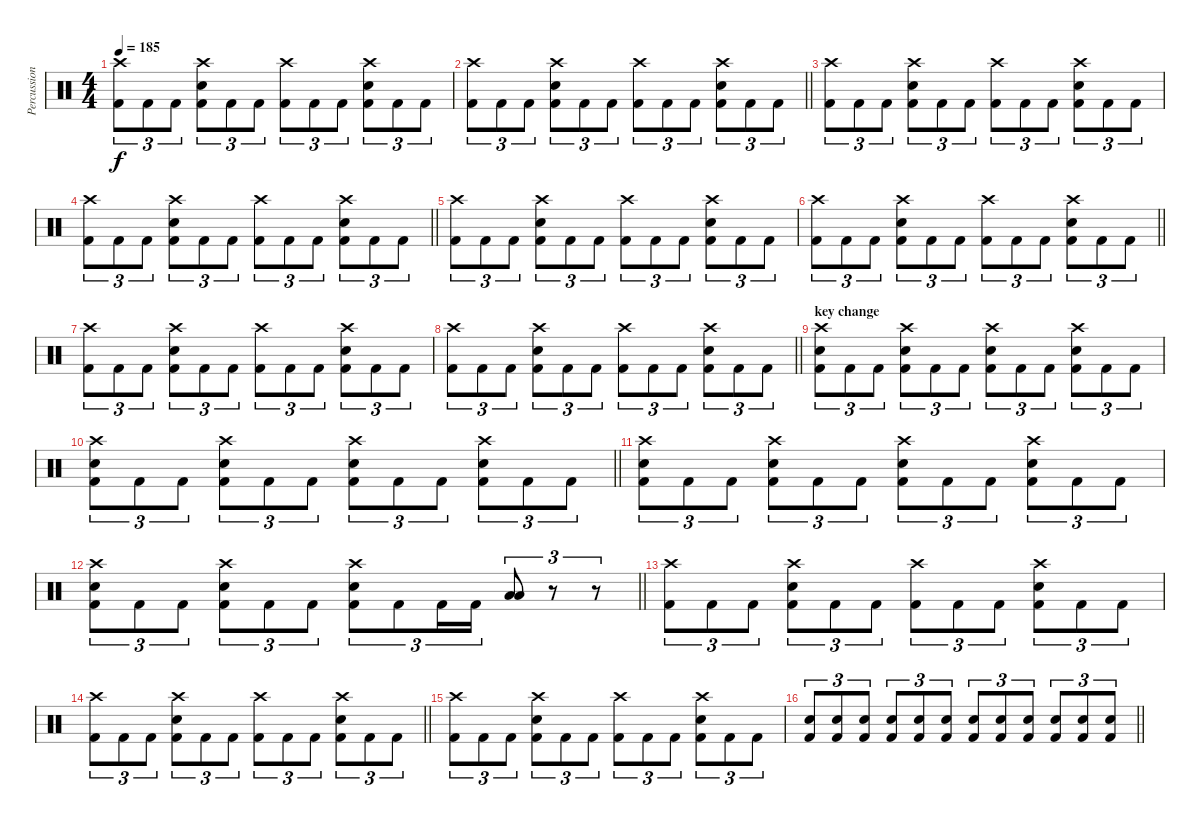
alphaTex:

\track ("Percussion" "Percussion") {instrument percussion}
\staff {score}
\articulation defaults
\ts (4 4)
\tempo 185
\clef neutral
\ks c
("Crash high (hit)" "Kick (hit) 2").8{tu (3 2) dy f} "Kick (hit) 2".8{tu (3 2)} "Kick (hit) 2".8{tu (3 2)} ("Crash high (hit)" "Electric Snare (hit)" "Kick (hit) 2").8{tu (3 2)} "Kick (hit) 2".8{tu (3 2)} "Kick (hit) 2".8{tu (3 2)} ("Crash high (hit)" "Kick (hit) 2").8{tu (3 2)} "Kick (hit) 2".8{tu (3 2)} "Kick (hit) 2".8{tu (3 2)} ("Crash high (hit)" "Electric Snare (hit)" "Kick (hit) 2").8{tu (3 2)} "Kick (hit) 2".8{tu (3 2)} "Kick (hit) 2".8{tu (3 2)} |
\barLineRight lightlight
("Crash high (hit)" "Kick (hit) 2").8{tu (3 2)} "Kick (hit) 2".8{tu (3 2)} "Kick (hit) 2".8{tu (3 2)} ("Crash high (hit)" "Electric Snare (hit)" "Kick (hit) 2").8{tu (3 2)} "Kick (hit) 2".8{tu (3 2)} "Kick (hit) 2".8{tu (3 2)} ("Crash high (hit)" "Kick (hit) 2").8{tu (3 2)} "Kick (hit) 2".8{tu (3 2)} "Kick (hit) 2".8{tu (3 2)} ("Crash high (hit)" "Electric Snare (hit)" "Kick (hit) 2").8{tu (3 2)} "Kick (hit) 2".8{tu (3 2)} "Kick (hit) 2".8{tu (3 2)} |
("Crash high (hit)" "Kick (hit) 2").8{tu (3 2)} "Kick (hit) 2".8{tu (3 2)} "Kick (hit) 2".8{tu (3 2)} ("Crash high (hit)" "Electric Snare (hit)" "Kick (hit) 2").8{tu (3 2)} "Kick (hit) 2".8{tu (3 2)} "Kick (hit) 2".8{tu (3 2)} ("Crash high (hit)" "Kick (hit) 2").8{tu (3 2)} "Kick (hit) 2".8{tu (3 2)} "Kick (hit) 2".8{tu (3 2)} ("Crash high (hit)" "Electric Snare (hit)" "Kick (hit) 2").8{tu (3 2)} "Kick (hit) 2".8{tu (3 2)} "Kick (hit) 2".8{tu (3 2)} |
\barLineRight lightlight
("Crash high (hit)" "Kick (hit) 2").8{tu (3 2)} "Kick (hit) 2".8{tu (3 2)} "Kick (hit) 2".8{tu (3 2)} ("Crash high (hit)" "Electric Snare (hit)" "Kick (hit) 2").8{tu (3 2)} "Kick (hit) 2".8{tu (3 2)} "Kick (hit) 2".8{tu (3 2)} ("Crash high (hit)" "Kick (hit) 2").8{tu (3 2)} "Kick (hit) 2".8{tu (3 2)} "Kick (hit) 2".8{tu (3 2)} ("Crash high (hit)" "Electric Snare (hit)" "Kick (hit) 2").8{tu (3 2)} "Kick (hit) 2".8{tu (3 2)} "Kick (hit) 2".8{tu (3 2)} |
("Crash high (hit)" "Kick (hit) 2").8{tu (3 2)} "Kick (hit) 2".8{tu (3 2)} "Kick (hit) 2".8{tu (3 2)} ("Crash high (hit)" "Electric Snare (hit)" "Kick (hit) 2").8{tu (3 2)} "Kick (hit) 2".8{tu (3 2)} "Kick (hit) 2".8{tu (3 2)} ("Crash high (hit)" "Kick (hit) 2").8{tu (3 2)} "Kick (hit) 2".8{tu (3 2)} "Kick (hit) 2".8{tu (3 2)} ("Crash high (hit)" "Electric Snare (hit)" "Kick (hit) 2").8{tu (3 2)} "Kick (hit) 2".8{tu (3 2)} "Kick (hit) 2".8{tu (3 2)} |
\barLineRight lightlight
("Crash high (hit)" "Kick (hit) 2").8{tu (3 2)} "Kick (hit) 2".8{tu (3 2)} "Kick (hit) 2".8{tu (3 2)} ("Crash high (hit)" "Electric Snare (hit)" "Kick (hit) 2").8{tu (3 2)} "Kick (hit) 2".8{tu (3 2)} "Kick (hit) 2".8{tu (3 2)} ("Crash high (hit)" "Kick (hit) 2").8{tu (3 2)} "Kick (hit) 2".8{tu (3 2)} "Kick (hit) 2".8{tu (3 2)} ("Crash high (hit)" "Electric Snare (hit)" "Kick (hit) 2").8{tu (3 2)} "Kick (hit) 2".8{tu (3 2)} "Kick (hit) 2".8{tu (3 2)} |
("Crash high (hit)" "Kick (hit) 2").8{tu (3 2)} "Kick (hit) 2".8{tu (3 2)} "Kick (hit) 2".8{tu (3 2)} ("Crash high (hit)" "Electric Snare (hit)" "Kick (hit) 2").8{tu (3 2)} "Kick (hit) 2".8{tu (3 2)} "Kick (hit) 2".8{tu (3 2)} ("Crash high (hit)" "Kick (hit) 2").8{tu (3 2)} "Kick (hit) 2".8{tu (3 2)} "Kick (hit) 2".8{tu (3 2)} ("Crash high (hit)" "Electric Snare (hit)" "Kick (hit) 2").8{tu (3 2)} "Kick (hit) 2".8{tu (3 2)} "Kick (hit) 2".8{tu (3 2)} |
\barLineRight lightlight
("Crash high (hit)" "Kick (hit) 2").8{tu (3 2)} "Kick (hit) 2".8{tu (3 2)} "Kick (hit) 2".8{tu (3 2)} ("Crash high (hit)" "Electric Snare (hit)" "Kick (hit) 2").8{tu (3 2)} "Kick (hit) 2".8{tu (3 2)} "Kick (hit) 2".8{tu (3 2)} ("Crash high (hit)" "Kick (hit) 2").8{tu (3 2)} "Kick (hit) 2".8{tu (3 2)} "Kick (hit) 2".8{tu (3 2)} ("Crash high (hit)" "Electric Snare (hit)" "Kick (hit) 2").8{tu (3 2)} "Kick (hit) 2".8{tu (3 2)} "Kick (hit) 2".8{tu (3 2)} |
\section ("" "key change")
("Crash high (hit)" "Electric Snare (hit)" "Kick (hit) 2").8{tu (3 2)} "Kick (hit) 2".8{tu (3 2)} "Kick (hit) 2".8{tu (3 2)} ("Crash high (hit)" "Electric Snare (hit)" "Kick (hit) 2").8{tu (3 2)} "Kick (hit) 2".8{tu (3 2)} "Kick (hit) 2".8{tu (3 2)} ("Crash high (hit)" "Electric Snare (hit)" "Kick (hit) 2").8{tu (3 2)} "Kick (hit) 2".8{tu (3 2)} "Kick (hit) 2".8{tu (3 2)} ("Crash high (hit)" "Electric Snare (hit)" "Kick (hit) 2").8{tu (3 2)} "Kick (hit) 2".8{tu (3 2)} "Kick (hit) 2".8{tu (3 2)} |
\barLineRight lightlight
("Crash high (hit)" "Electric Snare (hit)" "Kick (hit) 2").8{tu (3 2)} "Kick (hit) 2".8{tu (3 2)} "Kick (hit) 2".8{tu (3 2)} ("Crash high (hit)" "Electric Snare (hit)" "Kick (hit) 2").8{tu (3 2)} "Kick (hit) 2".8{tu (3 2)} "Kick (hit) 2".8{tu (3 2)} ("Crash high (hit)" "Electric Snare (hit)" "Kick (hit) 2").8{tu (3 2)} "Kick (hit) 2".8{tu (3 2)} "Kick (hit) 2".8{tu (3 2)} ("Crash high (hit)" "Electric Snare (hit)" "Kick (hit) 2").8{tu (3 2)} "Kick (hit) 2".8{tu (3 2)} "Kick (hit) 2".8{tu (3 2)} |
("Crash high (hit)" "Electric Snare (hit)" "Kick (hit) 2").8{tu (3 2)} "Kick (hit) 2".8{tu (3 2)} "Kick (hit) 2".8{tu (3 2)} ("Crash high (hit)" "Electric Snare (hit)" "Kick (hit) 2").8{tu (3 2)} "Kick (hit) 2".8{tu (3 2)} "Kick (hit) 2".8{tu (3 2)} ("Crash high (hit)" "Electric Snare (hit)" "Kick (hit) 2").8{tu (3 2)} "Kick (hit) 2".8{tu (3 2)} "Kick (hit) 2".8{tu (3 2)} ("Crash high (hit)" "Electric Snare (hit)" "Kick (hit) 2").8{tu (3 2)} "Kick (hit) 2".8{tu (3 2)} "Kick (hit) 2".8{tu (3 2)} |
\barLineRight lightlight
("Crash high (hit)" "Electric Snare (hit)" "Kick (hit) 2").8{tu (3 2)} "Kick (hit) 2".8{tu (3 2)} "Kick (hit) 2".8{tu (3 2)} ("Crash high (hit)" "Electric Snare (hit)" "Kick (hit) 2").8{tu (3 2)} "Kick (hit) 2".8{tu (3 2)} "Kick (hit) 2".8{tu (3 2)} ("Crash high (hit)" "Electric Snare (hit)" "Kick (hit) 2").8{tu (3 2)} "Kick (hit) 2".8{tu (3 2)} "Kick (hit) 2".16{tu (3 2)} "Kick (hit) 2".16{tu (3 2)} ("Low Tom (hit)" "Low Floor Tom (hit)").8{tu (3 2)} r.8{tu (3 2)} r.8{tu (3 2)} |
("Crash high (hit)" "Kick (hit) 2").8{tu (3 2)} "Kick (hit) 2".8{tu (3 2)} "Kick (hit) 2".8{tu (3 2)} ("Crash high (hit)" "Electric Snare (hit)" "Kick (hit) 2").8{tu (3 2)} "Kick (hit) 2".8{tu (3 2)} "Kick (hit) 2".8{tu (3 2)} ("Crash high (hit)" "Kick (hit) 2").8{tu (3 2)} "Kick (hit) 2".8{tu (3 2)} "Kick (hit) 2".8{tu (3 2)} ("Crash high (hit)" "Electric Snare (hit)" "Kick (hit) 2").8{tu (3 2)} "Kick (hit) 2".8{tu (3 2)} "Kick (hit) 2".8{tu (3 2)} |
\barLineRight lightlight
("Crash high (hit)" "Kick (hit) 2").8{tu (3 2)} "Kick (hit) 2".8{tu (3 2)} "Kick (hit) 2".8{tu (3 2)} ("Crash high (hit)" "Electric Snare (hit)" "Kick (hit) 2").8{tu (3 2)} "Kick (hit) 2".8{tu (3 2)} "Kick (hit) 2".8{tu (3 2)} ("Crash high (hit)" "Kick (hit) 2").8{tu (3 2)} "Kick (hit) 2".8{tu (3 2)} "Kick (hit) 2".8{tu (3 2)} ("Crash high (hit)" "Electric Snare (hit)" "Kick (hit) 2").8{tu (3 2)} "Kick (hit) 2".8{tu (3 2)} "Kick (hit) 2".8{tu (3 2)} |
("Crash high (hit)" "Kick (hit) 2").8{tu (3 2)} "Kick (hit) 2".8{tu (3 2)} "Kick (hit) 2".8{tu (3 2)} ("Crash high (hit)" "Electric Snare (hit)" "Kick (hit) 2").8{tu (3 2)} "Kick (hit) 2".8{tu (3 2)} "Kick (hit) 2".8{tu (3 2)} ("Crash high (hit)" "Kick (hit) 2").8{tu (3 2)} "Kick (hit) 2".8{tu (3 2)} "Kick (hit) 2".8{tu (3 2)} ("Crash high (hit)" "Electric Snare (hit)" "Kick (hit) 2").8{tu (3 2)} "Kick (hit) 2".8{tu (3 2)} "Kick (hit) 2".8{tu (3 2)} |
\barLineRight lightlight
("Electric Snare (hit)" "Kick (hit) 2").8{tu (3 2)} ("Electric Snare (hit)" "Kick (hit) 2").8{tu (3 2)} ("Electric Snare (hit)" "Kick (hit) 2").8{tu (3 2)} ("Electric Snare (hit)" "Kick (hit) 2").8{tu (3 2)} ("Electric Snare (hit)" "Kick (hit) 2").8{tu (3 2)} ("Electric Snare (hit)" "Kick (hit) 2").8{tu (3 2)} ("Electric Snare (hit)" "Kick (hit) 2").8{tu (3 2)} ("Electric Snare (hit)" "Kick (hit) 2").8{tu (3 2)} ("Electric Snare (hit)" "Kick (hit) 2").8{tu (3 2)} ("Electric Snare (hit)" "Kick (hit) 2").8{tu (3 2)} ("Electric Snare (hit)" "Kick (hit) 2").8{tu (3 2)} ("Electric Snare (hit)" "Kick (hit) 2").8{tu (3 2)}
